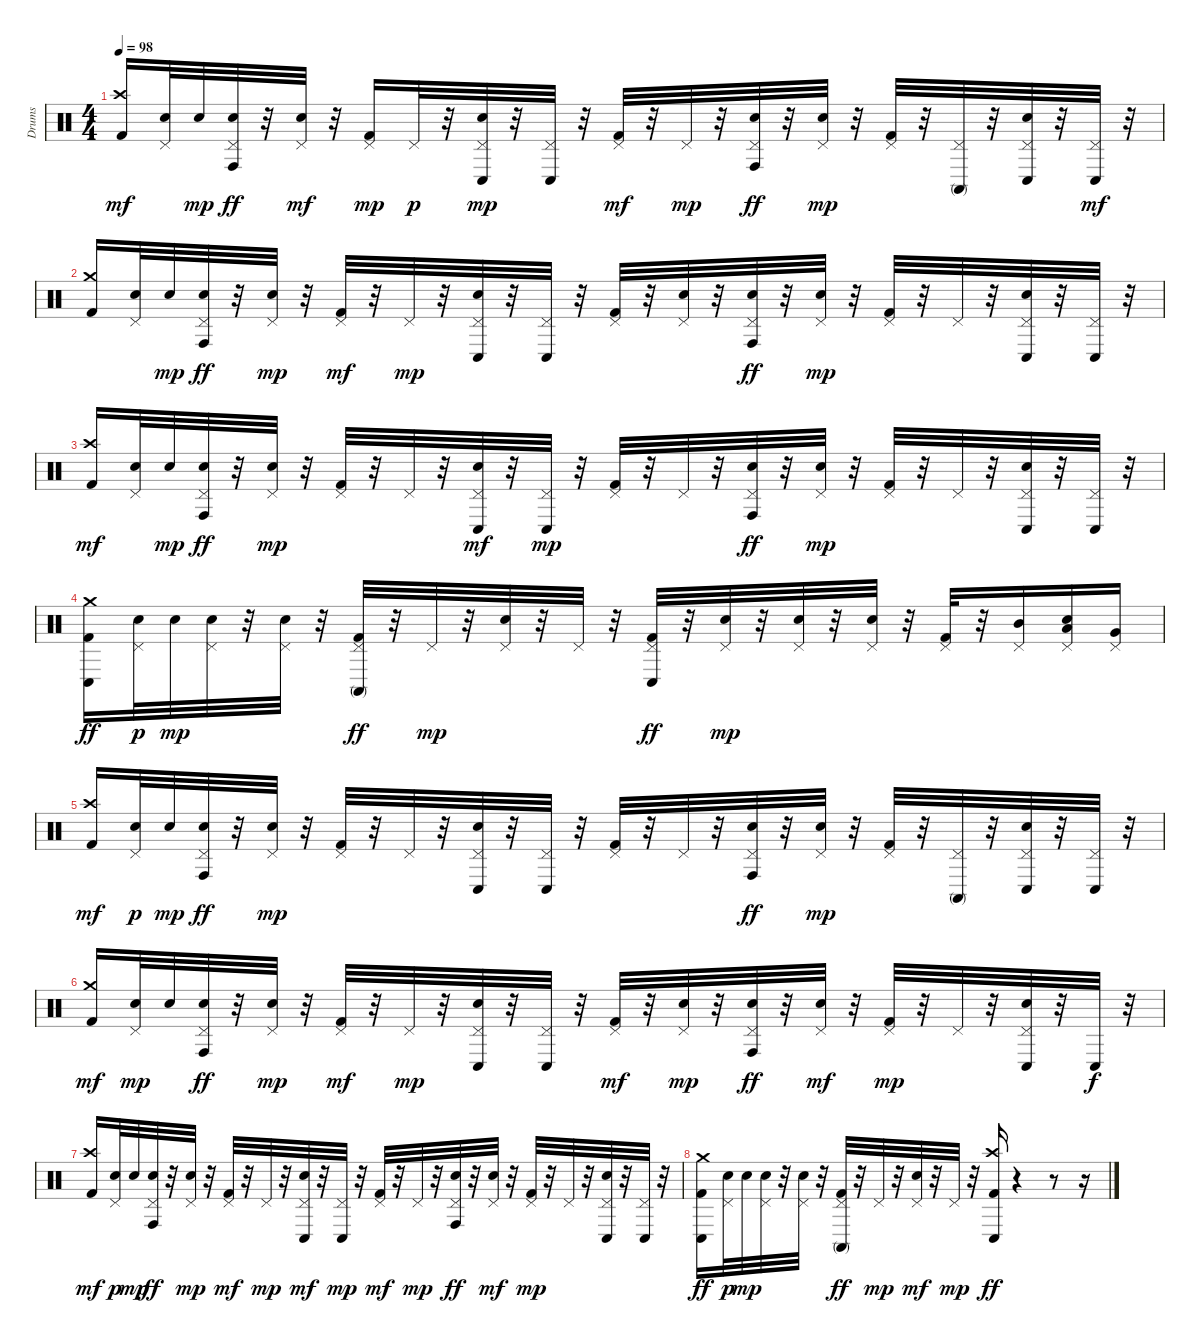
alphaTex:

\track ("Drums" "Drums") {instrument percussion}
\staff {score}
\articulation defaults
\ts (4 4)
\tempo 98
\clef neutral
\ks c
("Kick (hit) 2" "Crash high (hit)").16{dy mf} ("Electric Snare (hit)" "Pedal Hi-Hat (hit)").32 "Electric Snare (hit)".32{dy mp} ("Electric Snare (hit)" "Pedal Hi-Hat (hit)" "Conga high (hit)").32{dy ff} r.32 ("Electric Snare (hit)" "Pedal Hi-Hat (hit)").32{dy mf} r.32 ("Kick (hit) 2" "Pedal Hi-Hat (hit)").16{dy mp} "Pedal Hi-Hat (hit)".32{dy p} r.32 ("Electric Snare (hit)" "Pedal Hi-Hat (hit)" "Conga low (hit)").32{dy mp} r.32 ("Pedal Hi-Hat (hit)" "Conga low (hit)").32 r.32 ("Kick (hit) 2" "Pedal Hi-Hat (hit)").32{dy mf} r.32 "Pedal Hi-Hat (hit)".32{dy mp} r.32 ("Electric Snare (hit)" "Pedal Hi-Hat (hit)" "Conga high (hit)").32{dy ff} r.32 ("Electric Snare (hit)" "Pedal Hi-Hat (hit)").32{dy mp} r.32 ("Kick (hit) 2" "Pedal Hi-Hat (hit)").32 r.32 ("Pedal Hi-Hat (hit)" "Conga high (mute)").32 r.32 ("Electric Snare (hit)" "Pedal Hi-Hat (hit)" "Conga low (hit)").32 r.32 ("Pedal Hi-Hat (hit)" "Conga low (hit)").32{dy mf} r.32 |
("Kick (hit) 2" "Crash medium (hit)").16 ("Electric Snare (hit)" "Pedal Hi-Hat (hit)").32 "Electric Snare (hit)".32{dy mp} ("Electric Snare (hit)" "Pedal Hi-Hat (hit)" "Conga high (hit)").32{dy ff} r.32 ("Electric Snare (hit)" "Pedal Hi-Hat (hit)").32{dy mp} r.32 ("Kick (hit) 2" "Pedal Hi-Hat (hit)").32{dy mf} r.32 "Pedal Hi-Hat (hit)".32{dy mp} r.32 ("Electric Snare (hit)" "Pedal Hi-Hat (hit)" "Conga low (hit)").32 r.32 ("Pedal Hi-Hat (hit)" "Conga low (hit)").32 r.32 ("Kick (hit) 2" "Pedal Hi-Hat (hit)").32 r.32 ("Electric Snare (hit)" "Pedal Hi-Hat (hit)").32{volume 12} r.32 ("Electric Snare (hit)" "Pedal Hi-Hat (hit)" "Conga high (hit)").32{dy ff} r.32 ("Electric Snare (hit)" "Pedal Hi-Hat (hit)").32{dy mp} r.32 ("Kick (hit) 2" "Pedal Hi-Hat (hit)").32 r.32 "Pedal Hi-Hat (hit)".32 r.32 ("Electric Snare (hit)" "Pedal Hi-Hat (hit)" "Conga low (hit)").32 r.32 ("Pedal Hi-Hat (hit)" "Conga low (hit)").32 r.32 |
("Kick (hit) 2" "Crash high (hit)").16{dy mf} ("Electric Snare (hit)" "Pedal Hi-Hat (hit)").32 "Electric Snare (hit)".32{dy mp} ("Electric Snare (hit)" "Pedal Hi-Hat (hit)" "Conga high (hit)").32{dy ff} r.32 ("Electric Snare (hit)" "Pedal Hi-Hat (hit)").32{dy mp} r.32 ("Kick (hit) 2" "Pedal Hi-Hat (hit)").32 r.32 "Pedal Hi-Hat (hit)".32 r.32 ("Electric Snare (hit)" "Pedal Hi-Hat (hit)" "Conga low (hit)").32{dy mf} r.32 ("Pedal Hi-Hat (hit)" "Conga low (hit)").32{dy mp} r.32 ("Kick (hit) 2" "Pedal Hi-Hat (hit)").32 r.32 "Pedal Hi-Hat (hit)".32 r.32 ("Electric Snare (hit)" "Pedal Hi-Hat (hit)" "Conga high (hit)").32{dy ff} r.32 ("Electric Snare (hit)" "Pedal Hi-Hat (hit)").32{dy mp} r.32 ("Kick (hit) 2" "Pedal Hi-Hat (hit)").32 r.32 "Pedal Hi-Hat (hit)".32 r.32 ("Electric Snare (hit)" "Pedal Hi-Hat (hit)" "Conga low (hit)").32 r.32 ("Pedal Hi-Hat (hit)" "Conga low (hit)").32 r.32 |
("Kick (hit) 2" "Crash medium (hit)" "Conga low (hit)").16{dy ff} ("Electric Snare (hit)" "Pedal Hi-Hat (hit)").32{dy p} "Electric Snare (hit)".32{dy mp} ("Electric Snare (hit)" "Pedal Hi-Hat (hit)").32 r.32 ("Electric Snare (hit)" "Pedal Hi-Hat (hit)").32 r.32 ("Kick (hit) 2" "Pedal Hi-Hat (hit)" "Conga high (mute)").32{dy ff} r.32 "Pedal Hi-Hat (hit)".32{dy mp} r.32 ("Electric Snare (hit)" "Pedal Hi-Hat (hit)").32 r.32 "Pedal Hi-Hat (hit)".32 r.32 ("Kick (hit) 2" "Pedal Hi-Hat (hit)" "Conga low (hit)").32{dy ff} r.32 ("Electric Snare (hit)" "Pedal Hi-Hat (hit)").32{dy mp} r.32 ("Electric Snare (hit)" "Pedal Hi-Hat (hit)").32 r.32 ("Electric Snare (hit)" "Pedal Hi-Hat (hit)").32 r.32 ("Kick (hit) 2" "Pedal Hi-Hat (hit)").32 r.32 ("Pedal Hi-Hat (hit)" "Mid Tom (hit)").16 ("Electric Snare (hit)" "Pedal Hi-Hat (hit)" "Low Tom (hit)").16 ("Pedal Hi-Hat (hit)" "Very Low Tom (hit)").16 |
("Kick (hit) 2" "Crash high (hit)").16{dy mf} ("Electric Snare (hit)" "Pedal Hi-Hat (hit)").32{dy p} "Electric Snare (hit)".32{dy mp} ("Electric Snare (hit)" "Pedal Hi-Hat (hit)" "Conga high (hit)").32{dy ff} r.32 ("Electric Snare (hit)" "Pedal Hi-Hat (hit)").32{dy mp} r.32 ("Kick (hit) 2" "Pedal Hi-Hat (hit)").32 r.32 "Pedal Hi-Hat (hit)".32 r.32 ("Electric Snare (hit)" "Pedal Hi-Hat (hit)" "Conga low (hit)").32 r.32 ("Pedal Hi-Hat (hit)" "Conga low (hit)").32 r.32 ("Kick (hit) 2" "Pedal Hi-Hat (hit)").32 r.32 "Pedal Hi-Hat (hit)".32 r.32 ("Electric Snare (hit)" "Pedal Hi-Hat (hit)" "Conga high (hit)").32{dy ff} r.32 ("Electric Snare (hit)" "Pedal Hi-Hat (hit)").32{dy mp} r.32 ("Kick (hit) 2" "Pedal Hi-Hat (hit)").32 r.32 ("Pedal Hi-Hat (hit)" "Conga high (mute)").32 r.32 ("Electric Snare (hit)" "Pedal Hi-Hat (hit)" "Conga low (hit)").32 r.32 ("Pedal Hi-Hat (hit)" "Conga low (hit)").32 r.32 |
("Kick (hit) 2" "Crash medium (hit)").16{dy mf} ("Electric Snare (hit)" "Pedal Hi-Hat (hit)").32{dy mp} "Electric Snare (hit)".32 ("Electric Snare (hit)" "Pedal Hi-Hat (hit)" "Conga high (hit)").32{dy ff} r.32 ("Electric Snare (hit)" "Pedal Hi-Hat (hit)").32{dy mp} r.32 ("Kick (hit) 2" "Pedal Hi-Hat (hit)").32{dy mf} r.32 "Pedal Hi-Hat (hit)".32{dy mp} r.32 ("Electric Snare (hit)" "Pedal Hi-Hat (hit)" "Conga low (hit)").32 r.32 ("Pedal Hi-Hat (hit)" "Conga low (hit)").32 r.32 ("Kick (hit) 2" "Pedal Hi-Hat (hit)").32{dy mf} r.32 ("Electric Snare (hit)" "Pedal Hi-Hat (hit)").32{dy mp} r.32 ("Electric Snare (hit)" "Pedal Hi-Hat (hit)" "Conga high (hit)").32{dy ff} r.32 ("Electric Snare (hit)" "Pedal Hi-Hat (hit)").32{dy mf} r.32 ("Kick (hit) 2" "Pedal Hi-Hat (hit)").32{dy mp} r.32 "Pedal Hi-Hat (hit)".32 r.32 ("Electric Snare (hit)" "Pedal Hi-Hat (hit)" "Conga low (hit)").32 r.32 "Conga low (hit)".32{dy f} r.32 |
("Kick (hit) 2" "Crash high (hit)").16{dy mf} ("Electric Snare (hit)" "Pedal Hi-Hat (hit)").32{dy p} "Electric Snare (hit)".32{dy mp} ("Electric Snare (hit)" "Pedal Hi-Hat (hit)" "Conga high (hit)").32{dy ff} r.32 ("Electric Snare (hit)" "Pedal Hi-Hat (hit)").32{dy mp} r.32 ("Kick (hit) 2" "Pedal Hi-Hat (hit)").32{dy mf} r.32 "Pedal Hi-Hat (hit)".32{dy mp} r.32 ("Electric Snare (hit)" "Pedal Hi-Hat (hit)" "Conga low (hit)").32{dy mf} r.32 ("Pedal Hi-Hat (hit)" "Conga low (hit)").32{dy mp} r.32 ("Kick (hit) 2" "Pedal Hi-Hat (hit)").32{dy mf} r.32 "Pedal Hi-Hat (hit)".32{dy mp} r.32 ("Electric Snare (hit)" "Pedal Hi-Hat (hit)" "Conga high (hit)").32{dy ff} r.32 ("Electric Snare (hit)" "Pedal Hi-Hat (hit)").32{dy mf} r.32 ("Kick (hit) 2" "Pedal Hi-Hat (hit)").32{dy mp} r.32 "Pedal Hi-Hat (hit)".32 r.32 ("Electric Snare (hit)" "Pedal Hi-Hat (hit)" "Conga low (hit)").32 r.32 ("Pedal Hi-Hat (hit)" "Conga low (hit)").32 r.32 |
("Kick (hit) 2" "Crash medium (hit)" "Conga low (hit)").16{dy ff} ("Electric Snare (hit)" "Pedal Hi-Hat (hit)").32{dy p} "Electric Snare (hit)".32{dy mp} ("Electric Snare (hit)" "Pedal Hi-Hat (hit)").32 r.32 ("Electric Snare (hit)" "Pedal Hi-Hat (hit)").32 r.32 ("Kick (hit) 2" "Pedal Hi-Hat (hit)" "Conga high (mute)").32{dy ff} r.32 "Pedal Hi-Hat (hit)".32{dy mp} r.32 ("Electric Snare (hit)" "Pedal Hi-Hat (hit)").32{dy mf} r.32 "Pedal Hi-Hat (hit)".32{dy mp} r.32 ("Kick (hit) 2" "Crash high (hit)" "Conga low (hit)").16{dy ff} r.4 r.8 r.16
